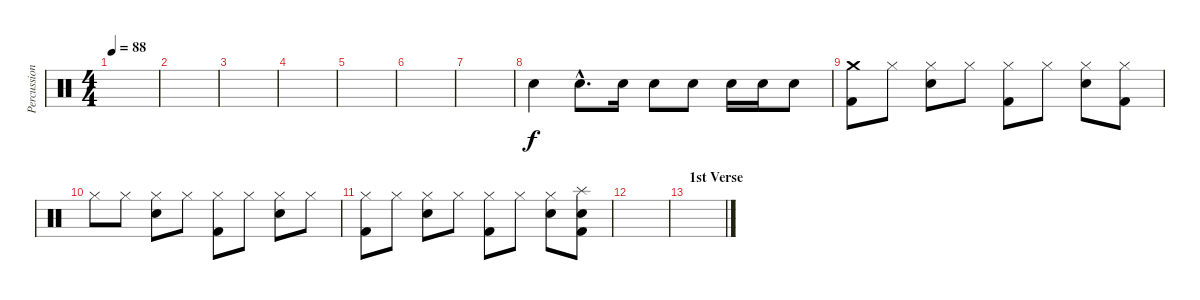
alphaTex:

\track ("Percussion" "Percussion") {instrument percussion}
\staff {score}
\articulation defaults
\ts (4 4)
\tempo 88
\clef neutral
\ks c
|
|
|
|
|
|
|
"Snare (hit) 2".4 "Snare (hit) 2"{hac}.8{d} "Snare (hit) 2".16 "Snare (hit) 2".8 "Snare (hit) 2".8 "Snare (hit) 2".16 "Snare (hit) 2".16 "Snare (hit) 2".8 |
("Crash medium (hit)" "Kick (hit) 2").8 "Hi-Hat (closed)".8 ("Hi-Hat (closed)" "Snare (hit) 2").8 "Hi-Hat (closed)".8 ("Hi-Hat (closed)" "Kick (hit) 2").8 "Hi-Hat (closed)".8 ("Hi-Hat (closed)" "Snare (hit) 2").8 ("Hi-Hat (closed)" "Kick (hit) 2").8 |
"Hi-Hat (closed)".8 "Hi-Hat (closed)".8 ("Hi-Hat (closed)" "Snare (hit) 2").8 "Hi-Hat (closed)".8 ("Hi-Hat (closed)" "Kick (hit) 2").8 "Hi-Hat (closed)".8 ("Hi-Hat (closed)" "Snare (hit) 2").8 "Hi-Hat (closed)".8 |
("Hi-Hat (closed)" "Kick (hit) 2").8 "Hi-Hat (closed)".8 ("Hi-Hat (closed)" "Snare (hit) 2").8 "Hi-Hat (closed)".8 ("Hi-Hat (closed)" "Kick (hit) 2").8 "Hi-Hat (closed)".8 ("Hi-Hat (closed)" "Snare (hit) 2").8 ("Splash (hit)" "Snare (hit) 2" "Kick (hit) 2").8 |
|
\section ("" "1st Verse")
